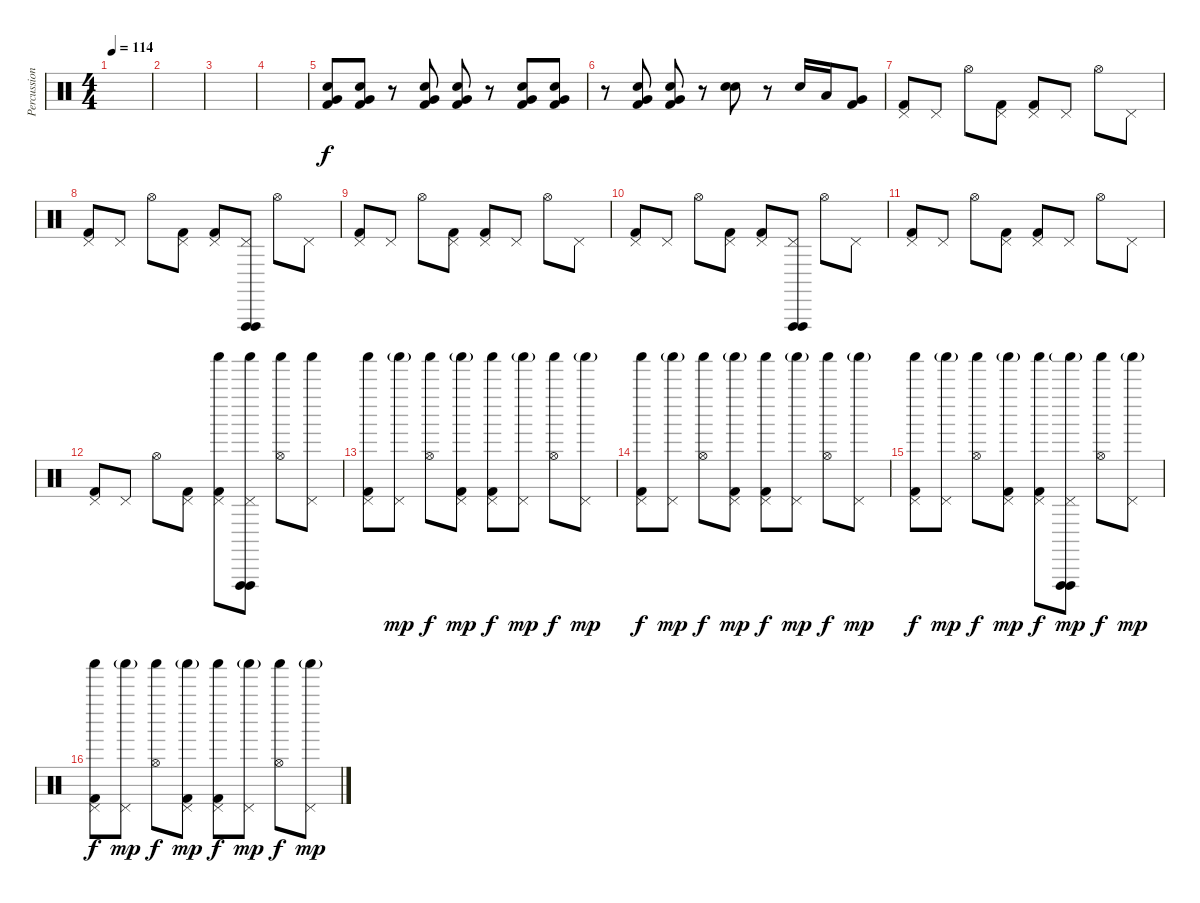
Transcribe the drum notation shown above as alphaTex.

\track ("Percussion" "Percussion") {instrument percussion}
\staff {score}
\articulation defaults
\ts (4 4)
\tempo 114
\clef neutral
\ks c
|
|
|
|
("Electric Snare (hit)" "Very Low Tom (hit)" "Kick (hit) 2").8 ("Electric Snare (hit)" "Very Low Tom (hit)" "Kick (hit) 2").8 r.8 ("Electric Snare (hit)" "Very Low Tom (hit)" "Kick (hit) 2").8 ("Electric Snare (hit)" "Very Low Tom (hit)" "Kick (hit) 2").8 r.8 ("Electric Snare (hit)" "Very Low Tom (hit)" "Kick (hit) 2").8 ("Electric Snare (hit)" "Very Low Tom (hit)" "Kick (hit) 2").8 |
r.8 ("Electric Snare (hit)" "Very Low Tom (hit)" "Kick (hit) 2").8 ("Electric Snare (hit)" "Very Low Tom (hit)" "Kick (hit) 2").8 r.8 ("Electric Snare (hit)" "Electric Snare (hit)").8 r.8 "Electric Snare (hit)".16 "Low Tom (hit)".16 ("Very Low Tom (hit)" "Kick (hit) 2").8 |
("Pedal Hi-Hat (hit)" "Kick (hit) 2").8 "Pedal Hi-Hat (hit)".8 "Hi-Hat (open)".8 ("Pedal Hi-Hat (hit)" "Kick (hit) 2").8 ("Pedal Hi-Hat (hit)" "Kick (hit) 2").8 "Pedal Hi-Hat (hit)".8 "Hi-Hat (open)".8 "Pedal Hi-Hat (hit)".8 |
("Pedal Hi-Hat (hit)" "Kick (hit) 2").8 "Pedal Hi-Hat (hit)".8 "Hi-Hat (open)".8 ("Pedal Hi-Hat (hit)" "Kick (hit) 2").8 ("Pedal Hi-Hat (hit)" "Kick (hit) 2").8 ("Pedal Hi-Hat (hit)" "Vibraslap (hit)" "Vibraslap (hit)").8 "Hi-Hat (open)".8 "Pedal Hi-Hat (hit)".8 |
("Pedal Hi-Hat (hit)" "Kick (hit) 2").8 "Pedal Hi-Hat (hit)".8 "Hi-Hat (open)".8 ("Pedal Hi-Hat (hit)" "Kick (hit) 2").8 ("Pedal Hi-Hat (hit)" "Kick (hit) 2").8 "Pedal Hi-Hat (hit)".8 "Hi-Hat (open)".8 "Pedal Hi-Hat (hit)".8 |
("Pedal Hi-Hat (hit)" "Kick (hit) 2").8 "Pedal Hi-Hat (hit)".8 "Hi-Hat (open)".8 ("Pedal Hi-Hat (hit)" "Kick (hit) 2").8 ("Pedal Hi-Hat (hit)" "Kick (hit) 2").8 ("Pedal Hi-Hat (hit)" "Vibraslap (hit)" "Vibraslap (hit)").8 "Hi-Hat (open)".8 "Pedal Hi-Hat (hit)".8 |
("Pedal Hi-Hat (hit)" "Kick (hit) 2").8 "Pedal Hi-Hat (hit)".8 "Hi-Hat (open)".8 ("Pedal Hi-Hat (hit)" "Kick (hit) 2").8 ("Pedal Hi-Hat (hit)" "Kick (hit) 2").8 "Pedal Hi-Hat (hit)".8 "Hi-Hat (open)".8 "Pedal Hi-Hat (hit)".8 |
("Pedal Hi-Hat (hit)" "Kick (hit) 2").8 "Pedal Hi-Hat (hit)".8 "Hi-Hat (open)".8 ("Pedal Hi-Hat (hit)" "Kick (hit) 2").8 ("Shaker (hit)" "Pedal Hi-Hat (hit)" "Kick (hit) 2").8 ("Shaker (hit)" "Pedal Hi-Hat (hit)" "Vibraslap (hit)" "Vibraslap (hit)").8 ("Shaker (hit)" "Hi-Hat (open)").8 ("Shaker (hit)" "Pedal Hi-Hat (hit)").8 |
("Shaker (hit)" "Pedal Hi-Hat (hit)" "Kick (hit) 2").8 ("Shaker (hit)"{g} "Pedal Hi-Hat (hit)").8{dy mp} ("Shaker (hit)" "Hi-Hat (open)").8{dy f} ("Shaker (hit)"{g} "Pedal Hi-Hat (hit)" "Kick (hit) 2").8{dy mp} ("Shaker (hit)" "Pedal Hi-Hat (hit)" "Kick (hit) 2").8{dy f} ("Shaker (hit)"{g} "Pedal Hi-Hat (hit)").8{dy mp} ("Shaker (hit)" "Hi-Hat (open)").8{dy f} ("Shaker (hit)"{g} "Pedal Hi-Hat (hit)").8{dy mp} |
("Shaker (hit)" "Pedal Hi-Hat (hit)" "Kick (hit) 2").8{dy f} ("Shaker (hit)"{g} "Pedal Hi-Hat (hit)").8{dy mp} ("Shaker (hit)" "Hi-Hat (open)").8{dy f} ("Shaker (hit)"{g} "Pedal Hi-Hat (hit)" "Kick (hit) 2").8{dy mp} ("Shaker (hit)" "Pedal Hi-Hat (hit)" "Kick (hit) 2").8{dy f} ("Shaker (hit)"{g} "Pedal Hi-Hat (hit)").8{dy mp} ("Shaker (hit)" "Hi-Hat (open)").8{dy f} ("Shaker (hit)"{g} "Pedal Hi-Hat (hit)").8{dy mp} |
("Shaker (hit)" "Pedal Hi-Hat (hit)" "Kick (hit) 2").8{dy f} ("Shaker (hit)"{g} "Pedal Hi-Hat (hit)").8{dy mp} ("Shaker (hit)" "Hi-Hat (open)").8{dy f} ("Shaker (hit)"{g} "Pedal Hi-Hat (hit)" "Kick (hit) 2").8{dy mp} ("Shaker (hit)" "Pedal Hi-Hat (hit)" "Kick (hit) 2").8{dy f} ("Shaker (hit)"{g} "Pedal Hi-Hat (hit)" "Vibraslap (hit)" "Vibraslap (hit)").8{dy mp} ("Shaker (hit)" "Hi-Hat (open)").8{dy f} ("Shaker (hit)"{g} "Pedal Hi-Hat (hit)").8{dy mp} |
("Shaker (hit)" "Pedal Hi-Hat (hit)" "Kick (hit) 2").8{dy f} ("Shaker (hit)"{g} "Pedal Hi-Hat (hit)").8{dy mp} ("Shaker (hit)" "Hi-Hat (open)").8{dy f} ("Shaker (hit)"{g} "Pedal Hi-Hat (hit)" "Kick (hit) 2").8{dy mp} ("Shaker (hit)" "Pedal Hi-Hat (hit)" "Kick (hit) 2").8{dy f} ("Shaker (hit)"{g} "Pedal Hi-Hat (hit)").8{dy mp} ("Shaker (hit)" "Hi-Hat (open)").8{dy f} ("Shaker (hit)"{g} "Pedal Hi-Hat (hit)").8{dy mp}
